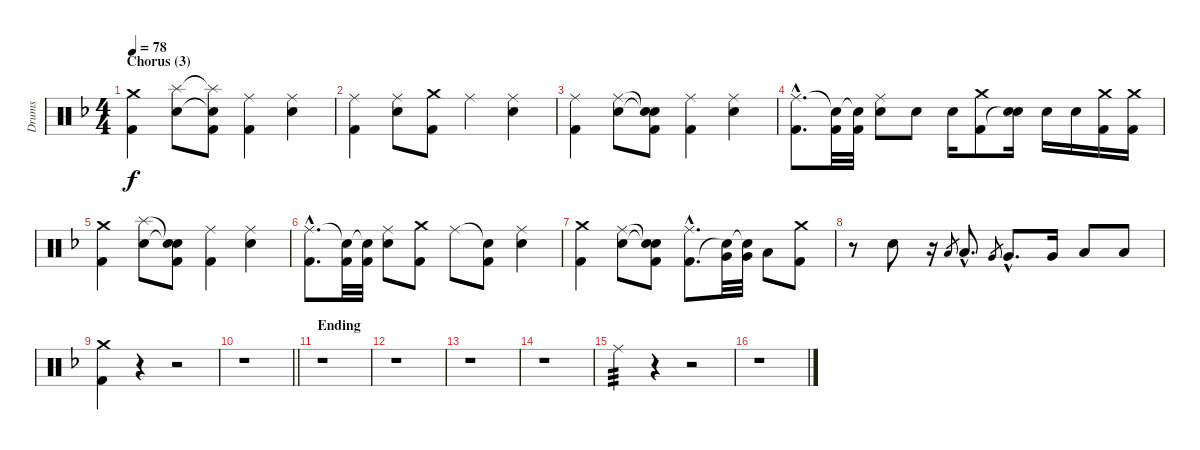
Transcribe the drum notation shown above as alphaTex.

\track ("Drums" "Drums") {instrument percussion}
\staff {score}
\articulation defaults
\ts (4 4)
\section ("" "Chorus (3)")
\tempo 78
\clef neutral
\ks f
("Crash medium (hit)" "Kick (hit) 2").4{dy f} ("Splash (hit)" "Electric Snare (hit)").8 ("Splash (hit)"{t} "Snare (hit)"{t} "Kick (hit) 2").8 ("Ride (middle)" "Kick (hit) 2").4 ("Ride (middle)" "Electric Snare (hit)").4 |
("Ride (middle)" "Kick (hit) 2").4 ("Ride (middle)" "Electric Snare (hit)").8 ("Crash medium (hit)" "Kick (hit) 2").8 "Ride (middle)".4 ("Ride (middle)" "Electric Snare (hit)").4 |
("Ride (middle)" "Kick (hit) 2").4 ("Ride (middle)" "Electric Snare (hit)").8 ("Snare (hit)"{t} "Snare (hit)"{t} "Kick (hit) 2").8 ("Ride (middle)" "Kick (hit) 2").4 ("Ride (middle)" "Electric Snare (hit)").4 |
("Ride (middle)"{hac} "Kick (hit) 2"{hac}).8{d} ("Snare (hit)"{t} "Kick (hit) 2").32 ("Snare (hit)"{t} "Kick (hit) 2").32 ("Ride (middle)" "Electric Snare (hit)").8 "Electric Snare (hit)".8 "Electric Snare (hit)".16 ("Crash medium (hit)" "Kick (hit) 2").8 ("Electric Snare (hit)" "Snare (hit)"{t}).16 "Electric Snare (hit)".16 "Electric Snare (hit)".16 ("Crash medium (hit)" "Kick (hit) 2").16 ("Crash medium (hit)" "Kick (hit) 2").16 |
("Crash medium (hit)" "Kick (hit) 2").4 ("Splash (hit)" "Electric Snare (hit)").8 ("Snare (hit)"{t} "Snare (hit)"{t} "Kick (hit) 2").8 ("Ride (middle)" "Kick (hit) 2").4 ("Ride (middle)" "Electric Snare (hit)").4 |
("Ride (middle)"{hac} "Kick (hit) 2"{hac}).8{d} ("Snare (hit)"{t} "Kick (hit) 2").32 ("Snare (hit)"{t} "Kick (hit) 2").32 ("Ride (middle)" "Electric Snare (hit)").8 ("Crash medium (hit)" "Kick (hit) 2").8 "Ride (middle)".8 ("Snare (hit)"{t} "Kick (hit) 2").8 ("Ride (middle)" "Electric Snare (hit)").4 |
("Crash medium (hit)" "Kick (hit) 2").4 ("Ride (middle)" "Electric Snare (hit)").8 ("Snare (hit)"{t} "Snare (hit)"{t} "Kick (hit) 2").8 ("Ride (middle)"{hac} "Kick (hit) 2"{hac}).8{d} ("Very Low Tom (hit)" "Snare (hit)"{t}).32 ("Very Low Tom (hit)" "Snare (hit)"{t}).32 "Low Floor Tom (hit)".8 ("Crash medium (hit)" "Kick (hit) 2").8 |
r.8 "Electric Snare (hit)".8 r.16 "Low Tom (hit)".8{gr} "Low Tom (hit)"{hac}.8{d} "Very Low Tom (hit)".8{gr} "Very Low Tom (hit)"{hac}.8{d} "Very Low Tom (hit)".16 "Low Floor Tom (hit)".8 "Low Floor Tom (hit)".8 |
("Crash medium (hit)" "Kick (hit) 2").4 r.4 r.2 |
\barLineRight lightlight
r.1 |
\section ("" "Ending")
r.1 |
r.1 |
r.1 |
r.1 |
"Ride (middle)".4{tp 3} r.4 r.2 |
r.1
